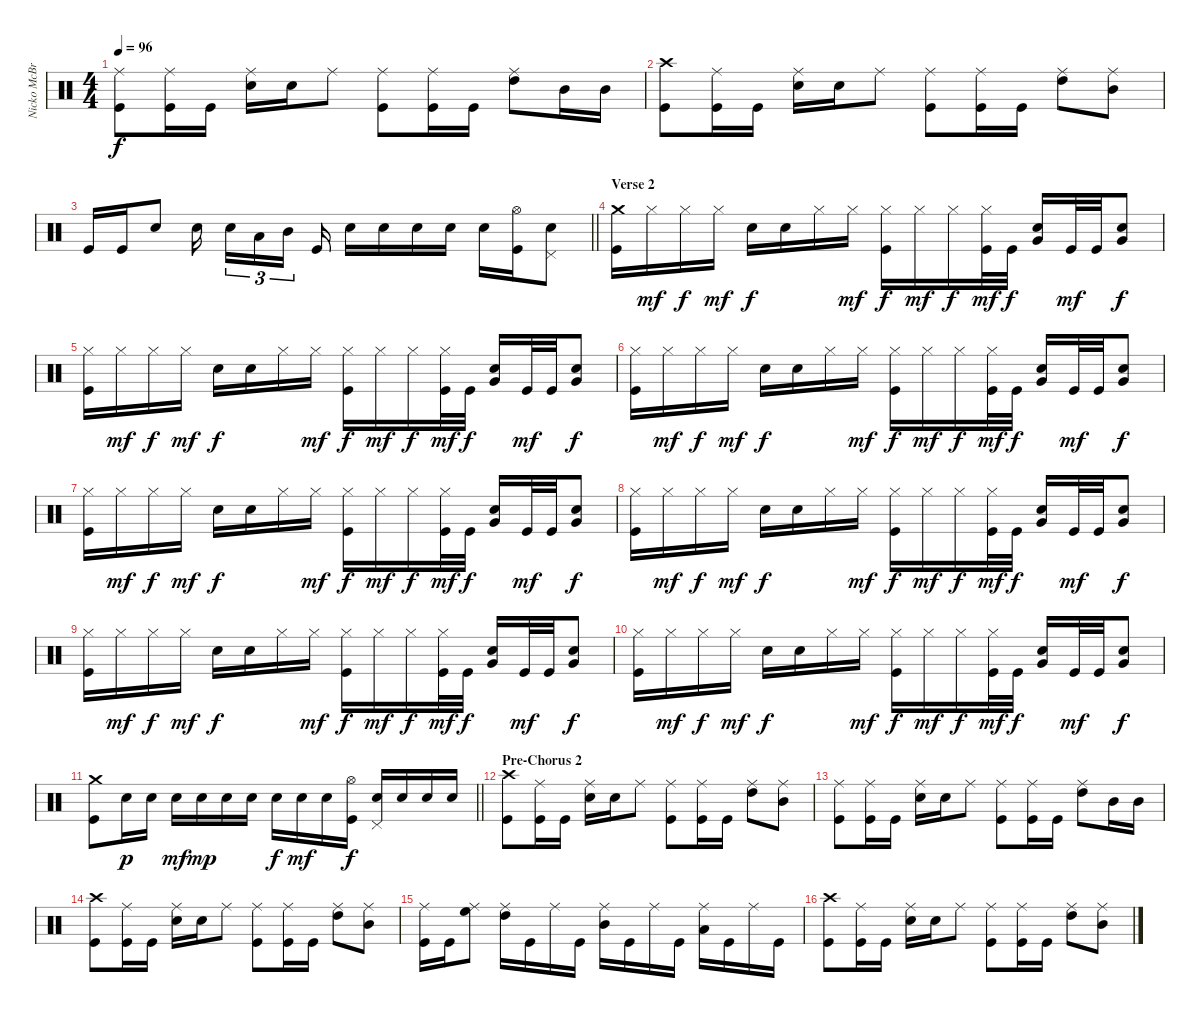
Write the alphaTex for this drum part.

\track ("Nicko McBrain" "Nicko McBr") {instrument percussion}
\staff {score}
\articulation defaults
\ts (4 4)
\tempo 96
\clef neutral
\ks c
("Ride (middle)" "Kick (hit)").8{dy f} ("Ride (middle)" "Kick (hit)").16 "Kick (hit)".16 ("Ride (middle)" "Electric Snare (hit)").16 "Electric Snare (hit)".16 "Ride (middle)".8 ("Ride (middle)" "Kick (hit)").8 ("Ride (middle)" "Kick (hit)").16 "Kick (hit)".16 ("Ride (middle)" "High Tom (hit)").8 "Mid Tom (hit)".16 "Mid Tom (hit)".16 |
("Crash high (hit)" "Kick (hit)").8 ("Ride (middle)" "Kick (hit)").16 "Kick (hit)".16 ("Ride (middle)" "Electric Snare (hit)").16 "Electric Snare (hit)".16 "Ride (middle)".8 ("Ride (middle)" "Kick (hit)").8 ("Ride (middle)" "Kick (hit)").16 "Kick (hit)".16 ("Ride (middle)" "High Tom (hit)").8 ("Ride (middle)" "Mid Tom (hit)").8 |
\barLineRight lightlight "Kick (hit)".16 "Kick (hit)".16 "Electric Snare (hit)".8 "Electric Snare (hit)".16{beam splitsecondary} "Electric Snare (hit)".16{tu (3 2)} "Low Tom (hit)".16{tu (3 2)} "Mid Tom (hit)".16{tu (3 2) beam splitsecondary} "Kick (hit)".16 "Electric Snare (hit)".16 "Electric Snare (hit)".16 "Electric Snare (hit)".16 "Electric Snare (hit)".16 "Electric Snare (hit)".16
("Hi-Hat (open)" "Kick (hit)").16 ("Electric Snare (hit)" "Pedal Hi-Hat (hit)").8 |
\section ("" "Verse 2")
("Crash medium (hit)" "Kick (hit)").16 "Hi-Hat (closed)".16{dy mf} "Hi-Hat (closed)".16{dy f} "Hi-Hat (closed)".16{dy mf} "Electric Snare (hit)".16{dy f} "Electric Snare (hit)".16 "Hi-Hat (closed)".16 "Hi-Hat (closed)".16{dy mf} ("Hi-Hat (closed)" "Kick (hit)").16{dy f} "Hi-Hat (closed)".16{dy mf} "Hi-Hat (closed)".16{dy f} ("Hi-Hat (closed)" "Kick (hit)").32{dy mf} "Kick (hit)".32{dy f} ("Electric Snare (hit)" "Very Low Tom (hit)").16 "Kick (hit)".32{dy mf} "Kick (hit)".32 ("Electric Snare (hit)" "Very Low Tom (hit)").8{dy f} |
("Hi-Hat (closed)" "Kick (hit)").16 "Hi-Hat (closed)".16{dy mf} "Hi-Hat (closed)".16{dy f} "Hi-Hat (closed)".16{dy mf} "Electric Snare (hit)".16{dy f} "Electric Snare (hit)".16 "Hi-Hat (closed)".16 "Hi-Hat (closed)".16{dy mf} ("Hi-Hat (closed)" "Kick (hit)").16{dy f} "Hi-Hat (closed)".16{dy mf} "Hi-Hat (closed)".16{dy f} ("Hi-Hat (closed)" "Kick (hit)").32{dy mf} "Kick (hit)".32{dy f} ("Electric Snare (hit)" "Very Low Tom (hit)").16 "Kick (hit)".32{dy mf} "Kick (hit)".32 ("Electric Snare (hit)" "Very Low Tom (hit)").8{dy f} |
("Hi-Hat (closed)" "Kick (hit)").16 "Hi-Hat (closed)".16{dy mf} "Hi-Hat (closed)".16{dy f} "Hi-Hat (closed)".16{dy mf} "Electric Snare (hit)".16{dy f} "Electric Snare (hit)".16 "Hi-Hat (closed)".16 "Hi-Hat (closed)".16{dy mf} ("Hi-Hat (closed)" "Kick (hit)").16{dy f} "Hi-Hat (closed)".16{dy mf} "Hi-Hat (closed)".16{dy f} ("Hi-Hat (closed)" "Kick (hit)").32{dy mf} "Kick (hit)".32{dy f} ("Electric Snare (hit)" "Very Low Tom (hit)").16 "Kick (hit)".32{dy mf} "Kick (hit)".32 ("Electric Snare (hit)" "Very Low Tom (hit)").8{dy f} |
("Hi-Hat (closed)" "Kick (hit)").16 "Hi-Hat (closed)".16{dy mf} "Hi-Hat (closed)".16{dy f} "Hi-Hat (closed)".16{dy mf} "Electric Snare (hit)".16{dy f} "Electric Snare (hit)".16 "Hi-Hat (closed)".16 "Hi-Hat (closed)".16{dy mf} ("Hi-Hat (closed)" "Kick (hit)").16{dy f} "Hi-Hat (closed)".16{dy mf} "Hi-Hat (closed)".16{dy f} ("Hi-Hat (closed)" "Kick (hit)").32{dy mf} "Kick (hit)".32{dy f} ("Electric Snare (hit)" "Very Low Tom (hit)").16 "Kick (hit)".32{dy mf} "Kick (hit)".32 ("Electric Snare (hit)" "Very Low Tom (hit)").8{dy f} |
("Hi-Hat (closed)" "Kick (hit)").16 "Hi-Hat (closed)".16{dy mf} "Hi-Hat (closed)".16{dy f} "Hi-Hat (closed)".16{dy mf} "Electric Snare (hit)".16{dy f} "Electric Snare (hit)".16 "Hi-Hat (closed)".16 "Hi-Hat (closed)".16{dy mf} ("Hi-Hat (closed)" "Kick (hit)").16{dy f} "Hi-Hat (closed)".16{dy mf} "Hi-Hat (closed)".16{dy f} ("Hi-Hat (closed)" "Kick (hit)").32{dy mf} "Kick (hit)".32{dy f} ("Electric Snare (hit)" "Very Low Tom (hit)").16 "Kick (hit)".32{dy mf} "Kick (hit)".32 ("Electric Snare (hit)" "Very Low Tom (hit)").8{dy f} |
("Hi-Hat (closed)" "Kick (hit)").16 "Hi-Hat (closed)".16{dy mf} "Hi-Hat (closed)".16{dy f} "Hi-Hat (closed)".16{dy mf} "Electric Snare (hit)".16{dy f} "Electric Snare (hit)".16 "Hi-Hat (closed)".16 "Hi-Hat (closed)".16{dy mf} ("Hi-Hat (closed)" "Kick (hit)").16{dy f} "Hi-Hat (closed)".16{dy mf} "Hi-Hat (closed)".16{dy f} ("Hi-Hat (closed)" "Kick (hit)").32{dy mf} "Kick (hit)".32{dy f} ("Electric Snare (hit)" "Very Low Tom (hit)").16 "Kick (hit)".32{dy mf} "Kick (hit)".32 ("Electric Snare (hit)" "Very Low Tom (hit)").8{dy f} |
("Hi-Hat (closed)" "Kick (hit)").16 "Hi-Hat (closed)".16{dy mf} "Hi-Hat (closed)".16{dy f} "Hi-Hat (closed)".16{dy mf} "Electric Snare (hit)".16{dy f} "Electric Snare (hit)".16 "Hi-Hat (closed)".16 "Hi-Hat (closed)".16{dy mf} ("Hi-Hat (closed)" "Kick (hit)").16{dy f} "Hi-Hat (closed)".16{dy mf} "Hi-Hat (closed)".16{dy f} ("Hi-Hat (closed)" "Kick (hit)").32{dy mf} "Kick (hit)".32{dy f} ("Electric Snare (hit)" "Very Low Tom (hit)").16 "Kick (hit)".32{dy mf} "Kick (hit)".32 ("Electric Snare (hit)" "Very Low Tom (hit)").8{dy f} |
\barLineRight lightlight
("Crash medium (hit)" "Kick (hit)").8 "Electric Snare (hit)".16{dy p} "Electric Snare (hit)".16 "Electric Snare (hit)".16{dy mf} "Electric Snare (hit)".16{dy mp} "Electric Snare (hit)".16 "Electric Snare (hit)".16 "Electric Snare (hit)".16{dy f} "Electric Snare (hit)".16{dy mf} "Electric Snare (hit)".16 ("Hi-Hat (open)" "Kick (hit)").16{dy f} ("Electric Snare (hit)" "Pedal Hi-Hat (hit)").16 "Electric Snare (hit)".16 "Electric Snare (hit)".16 "Electric Snare (hit)".16 |
\section ("" "Pre-Chorus 2")
("Crash high (hit)" "Kick (hit)").8 ("Ride (middle)" "Kick (hit)").16 "Kick (hit)".16 ("Ride (middle)" "Electric Snare (hit)").16 "Electric Snare (hit)".16 "Ride (middle)".8 ("Ride (middle)" "Kick (hit)").8 ("Ride (middle)" "Kick (hit)").16 "Kick (hit)".16 ("Ride (middle)" "High Tom (hit)").8 ("Ride (middle)" "Mid Tom (hit)").8 |
("Ride (middle)" "Kick (hit)").8 ("Ride (middle)" "Kick (hit)").16 "Kick (hit)".16 ("Ride (middle)" "Electric Snare (hit)").16 "Electric Snare (hit)".16 "Ride (middle)".8 ("Ride (middle)" "Kick (hit)").8 ("Ride (middle)" "Kick (hit)").16 "Kick (hit)".16 ("Ride (middle)" "High Tom (hit)").8 "Mid Tom (hit)".16 "Mid Tom (hit)".16 |
("Crash high (hit)" "Kick (hit)").8 ("Ride (middle)" "Kick (hit)").16 "Kick (hit)".16 ("Ride (middle)" "Electric Snare (hit)").16 "Electric Snare (hit)".16 "Ride (middle)".8 ("Ride (middle)" "Kick (hit)").8 ("Ride (middle)" "Kick (hit)").16 "Kick (hit)".16 ("Ride (middle)" "High Tom (hit)").8 ("Ride (middle)" "Mid Tom (hit)").8 |
("Ride (middle)" "Kick (hit)").16 "Kick (hit)".16 ("Ride (middle)" "High Floor Tom (hit)").8 ("Ride (middle)" "High Tom (hit)").16 "Kick (hit)".16 "Ride (middle)".16 "Kick (hit)".16 ("Ride (middle)" "Mid Tom (hit)").16 "Kick (hit)".16 "Ride (middle)".16 "Kick (hit)".16 ("Ride (middle)" "Low Tom (hit)").16 "Kick (hit)".16 "Ride (middle)".16 "Kick (hit)".16 |
("Crash high (hit)" "Kick (hit)").8 ("Ride (middle)" "Kick (hit)").16 "Kick (hit)".16 ("Ride (middle)" "Electric Snare (hit)").16 "Electric Snare (hit)".16 "Ride (middle)".8 ("Ride (middle)" "Kick (hit)").8 ("Ride (middle)" "Kick (hit)").16 "Kick (hit)".16 ("Ride (middle)" "High Tom (hit)").8 ("Ride (middle)" "Mid Tom (hit)").8
